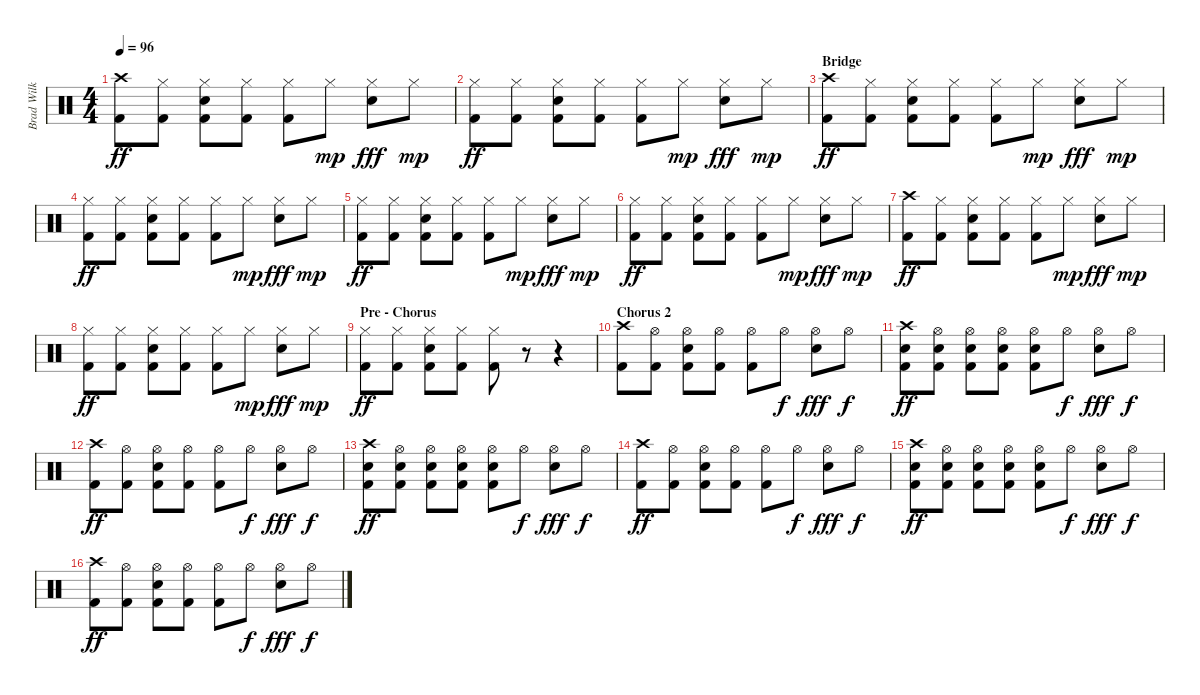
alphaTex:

\track ("Brad Wilk / Drums" "Brad Wilk ") {instrument percussion}
\staff {score}
\articulation defaults
\ts (4 4)
\tempo 96
\clef neutral
\ks c
("Crash high (hit)" "Kick (hit) 2").8{dy ff} ("Hi-Hat (closed)" "Kick (hit) 2").8 ("Hi-Hat (closed)" "Electric Snare (hit)" "Kick (hit) 2").8 ("Hi-Hat (closed)" "Kick (hit) 2").8 ("Hi-Hat (closed)" "Kick (hit) 2").8 "Hi-Hat (closed)".8{dy mp} ("Hi-Hat (closed)" "Electric Snare (hit)").8{dy fff} "Hi-Hat (closed)".8{dy mp} |
("Hi-Hat (closed)" "Kick (hit) 2").8{dy ff} ("Hi-Hat (closed)" "Kick (hit) 2").8 ("Hi-Hat (closed)" "Electric Snare (hit)" "Kick (hit) 2").8 ("Hi-Hat (closed)" "Kick (hit) 2").8 ("Hi-Hat (closed)" "Kick (hit) 2").8 "Hi-Hat (closed)".8{dy mp} ("Hi-Hat (closed)" "Electric Snare (hit)").8{dy fff} "Hi-Hat (closed)".8{dy mp} |
\section ("" "Bridge")
("Crash high (hit)" "Kick (hit) 2").8{dy ff} ("Hi-Hat (closed)" "Kick (hit) 2").8 ("Hi-Hat (closed)" "Electric Snare (hit)" "Kick (hit) 2").8 ("Hi-Hat (closed)" "Kick (hit) 2").8 ("Hi-Hat (closed)" "Kick (hit) 2").8 "Hi-Hat (closed)".8{dy mp} ("Hi-Hat (closed)" "Electric Snare (hit)").8{dy fff} "Hi-Hat (closed)".8{dy mp} |
("Hi-Hat (closed)" "Kick (hit) 2").8{dy ff} ("Hi-Hat (closed)" "Kick (hit) 2").8 ("Hi-Hat (closed)" "Electric Snare (hit)" "Kick (hit) 2").8 ("Hi-Hat (closed)" "Kick (hit) 2").8 ("Hi-Hat (closed)" "Kick (hit) 2").8 "Hi-Hat (closed)".8{dy mp} ("Hi-Hat (closed)" "Electric Snare (hit)").8{dy fff} "Hi-Hat (closed)".8{dy mp} |
("Hi-Hat (closed)" "Kick (hit) 2").8{dy ff} ("Hi-Hat (closed)" "Kick (hit) 2").8 ("Hi-Hat (closed)" "Electric Snare (hit)" "Kick (hit) 2").8 ("Hi-Hat (closed)" "Kick (hit) 2").8 ("Hi-Hat (closed)" "Kick (hit) 2").8 "Hi-Hat (closed)".8{dy mp} ("Hi-Hat (closed)" "Electric Snare (hit)").8{dy fff} "Hi-Hat (closed)".8{dy mp} |
("Hi-Hat (closed)" "Kick (hit) 2").8{dy ff} ("Hi-Hat (closed)" "Kick (hit) 2").8 ("Hi-Hat (closed)" "Electric Snare (hit)" "Kick (hit) 2").8 ("Hi-Hat (closed)" "Kick (hit) 2").8 ("Hi-Hat (closed)" "Kick (hit) 2").8 "Hi-Hat (closed)".8{dy mp} ("Hi-Hat (closed)" "Electric Snare (hit)").8{dy fff} "Hi-Hat (closed)".8{dy mp} |
("Crash high (hit)" "Kick (hit) 2").8{dy ff} ("Hi-Hat (closed)" "Kick (hit) 2").8 ("Hi-Hat (closed)" "Electric Snare (hit)" "Kick (hit) 2").8 ("Hi-Hat (closed)" "Kick (hit) 2").8 ("Hi-Hat (closed)" "Kick (hit) 2").8 "Hi-Hat (closed)".8{dy mp} ("Hi-Hat (closed)" "Electric Snare (hit)").8{dy fff} "Hi-Hat (closed)".8{dy mp} |
("Hi-Hat (closed)" "Kick (hit) 2").8{dy ff} ("Hi-Hat (closed)" "Kick (hit) 2").8 ("Hi-Hat (closed)" "Electric Snare (hit)" "Kick (hit) 2").8 ("Hi-Hat (closed)" "Kick (hit) 2").8 ("Hi-Hat (closed)" "Kick (hit) 2").8 "Hi-Hat (closed)".8{dy mp} ("Hi-Hat (closed)" "Electric Snare (hit)").8{dy fff} "Hi-Hat (closed)".8{dy mp} |
\section ("" "Pre - Chorus")
("Hi-Hat (closed)" "Kick (hit) 2").8{dy ff} ("Hi-Hat (closed)" "Kick (hit) 2").8 ("Hi-Hat (closed)" "Electric Snare (hit)" "Kick (hit) 2").8 ("Hi-Hat (closed)" "Kick (hit) 2").8 ("Hi-Hat (closed)" "Kick (hit) 2").8 r.8 r.4 |
\section ("" "Chorus 2")
("Crash high (hit)" "Kick (hit) 2").8 ("Hi-Hat (open)" "Kick (hit) 2").8 ("Hi-Hat (open)" "Electric Snare (hit)" "Kick (hit) 2").8 ("Hi-Hat (open)" "Kick (hit) 2").8 ("Hi-Hat (open)" "Kick (hit) 2").8 "Hi-Hat (open)".8{dy f} ("Hi-Hat (open)" "Electric Snare (hit)").8{dy fff} "Hi-Hat (open)".8{dy f} |
("Crash high (hit)" "Electric Snare (hit)" "Kick (hit) 2").8{dy ff} ("Hi-Hat (open)" "Electric Snare (hit)" "Kick (hit) 2").8 ("Hi-Hat (open)" "Electric Snare (hit)" "Kick (hit) 2").8 ("Hi-Hat (open)" "Electric Snare (hit)" "Kick (hit) 2").8 ("Hi-Hat (open)" "Electric Snare (hit)" "Kick (hit) 2").8 "Hi-Hat (open)".8{dy f} ("Hi-Hat (open)" "Electric Snare (hit)").8{dy fff} "Hi-Hat (open)".8{dy f} |
("Crash high (hit)" "Kick (hit) 2").8{dy ff} ("Hi-Hat (open)" "Kick (hit) 2").8 ("Hi-Hat (open)" "Electric Snare (hit)" "Kick (hit) 2").8 ("Hi-Hat (open)" "Kick (hit) 2").8 ("Hi-Hat (open)" "Kick (hit) 2").8 "Hi-Hat (open)".8{dy f} ("Hi-Hat (open)" "Electric Snare (hit)").8{dy fff} "Hi-Hat (open)".8{dy f} |
("Crash high (hit)" "Electric Snare (hit)" "Kick (hit) 2").8{dy ff} ("Hi-Hat (open)" "Electric Snare (hit)" "Kick (hit) 2").8 ("Hi-Hat (open)" "Electric Snare (hit)" "Kick (hit) 2").8 ("Hi-Hat (open)" "Electric Snare (hit)" "Kick (hit) 2").8 ("Hi-Hat (open)" "Electric Snare (hit)" "Kick (hit) 2").8 "Hi-Hat (open)".8{dy f} ("Hi-Hat (open)" "Electric Snare (hit)").8{dy fff} "Hi-Hat (open)".8{dy f} |
("Crash high (hit)" "Kick (hit) 2").8{dy ff} ("Hi-Hat (open)" "Kick (hit) 2").8 ("Hi-Hat (open)" "Electric Snare (hit)" "Kick (hit) 2").8 ("Hi-Hat (open)" "Kick (hit) 2").8 ("Hi-Hat (open)" "Kick (hit) 2").8 "Hi-Hat (open)".8{dy f} ("Hi-Hat (open)" "Electric Snare (hit)").8{dy fff} "Hi-Hat (open)".8{dy f} |
("Crash high (hit)" "Electric Snare (hit)" "Kick (hit) 2").8{dy ff} ("Hi-Hat (open)" "Electric Snare (hit)" "Kick (hit) 2").8 ("Hi-Hat (open)" "Electric Snare (hit)" "Kick (hit) 2").8 ("Hi-Hat (open)" "Electric Snare (hit)" "Kick (hit) 2").8 ("Hi-Hat (open)" "Electric Snare (hit)" "Kick (hit) 2").8 "Hi-Hat (open)".8{dy f} ("Hi-Hat (open)" "Electric Snare (hit)").8{dy fff} "Hi-Hat (open)".8{dy f} |
("Crash high (hit)" "Kick (hit) 2").8{dy ff} ("Hi-Hat (open)" "Kick (hit) 2").8 ("Hi-Hat (open)" "Electric Snare (hit)" "Kick (hit) 2").8 ("Hi-Hat (open)" "Kick (hit) 2").8 ("Hi-Hat (open)" "Kick (hit) 2").8 "Hi-Hat (open)".8{dy f} ("Hi-Hat (open)" "Electric Snare (hit)").8{dy fff} "Hi-Hat (open)".8{dy f}
